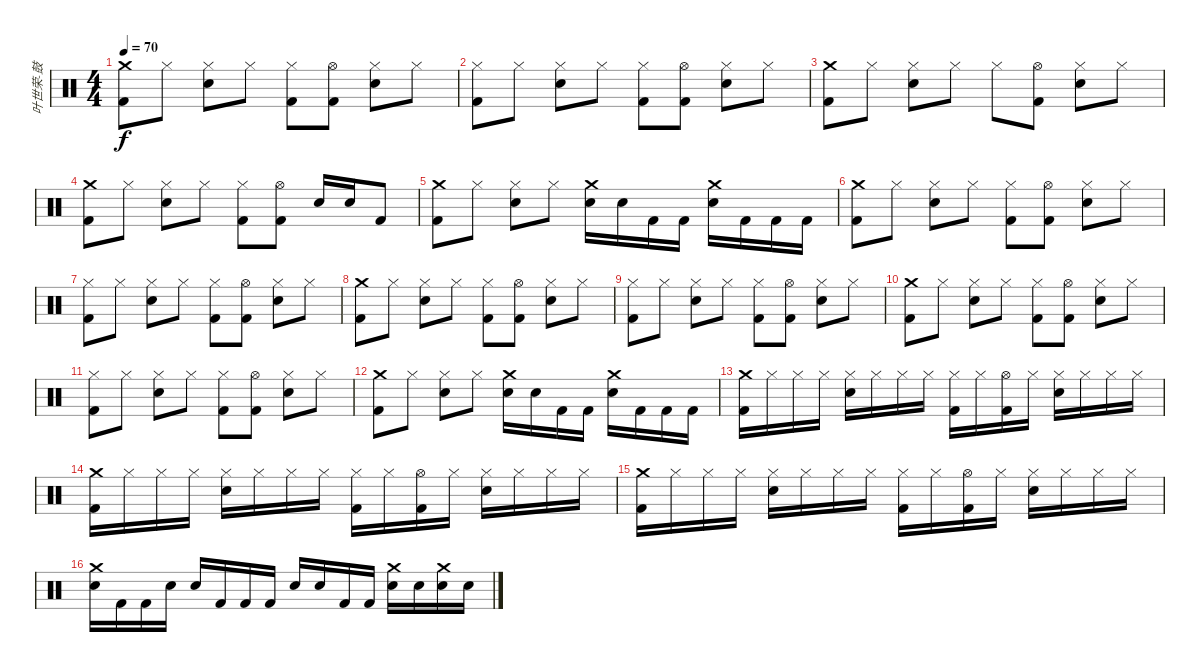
\track ("叶世荣-鼓" "叶世荣-鼓") {instrument percussion}
\staff {score}
\articulation defaults
\ts (4 4)
\tempo 70
\clef neutral
\ks c
("Crash medium (hit)" "Kick (hit) 2").8{dy f} "Hi-Hat (closed)".8 ("Hi-Hat (closed)" "Snare (hit) 2").8 "Hi-Hat (closed)".8 ("Hi-Hat (closed)" "Kick (hit) 2").8 ("Hi-Hat (open)" "Kick (hit) 2").8 ("Hi-Hat (closed)" "Snare (hit) 2").8 "Hi-Hat (closed)".8 |
("Hi-Hat (closed)" "Kick (hit) 2").8 "Hi-Hat (closed)".8 ("Hi-Hat (closed)" "Snare (hit) 2").8 "Hi-Hat (closed)".8 ("Hi-Hat (closed)" "Kick (hit) 2").8 ("Hi-Hat (open)" "Kick (hit) 2").8 ("Hi-Hat (closed)" "Snare (hit) 2").8 "Hi-Hat (closed)".8 |
("Crash medium (hit)" "Kick (hit) 2").8 "Hi-Hat (closed)".8 ("Hi-Hat (closed)" "Snare (hit) 2").8 "Hi-Hat (closed)".8 "Hi-Hat (closed)".8 ("Hi-Hat (open)" "Kick (hit) 2").8 ("Hi-Hat (closed)" "Snare (hit) 2").8 "Hi-Hat (closed)".8 |
("Crash medium (hit)" "Kick (hit) 2").8 "Hi-Hat (closed)".8 ("Hi-Hat (closed)" "Snare (hit) 2").8 "Hi-Hat (closed)".8 ("Hi-Hat (closed)" "Kick (hit) 2").8 ("Hi-Hat (open)" "Kick (hit) 2").8 "Snare (hit) 2".16 "Snare (hit) 2".16 "Kick (hit) 2".8 |
("Crash medium (hit)" "Kick (hit) 2").8 "Hi-Hat (closed)".8 ("Hi-Hat (closed)" "Snare (hit) 2").8 "Hi-Hat (closed)".8 ("Crash medium (hit)" "Snare (hit) 2").16 "Snare (hit) 2".16 "Kick (hit) 2".16 "Kick (hit) 2".16 ("Crash medium (hit)" "Snare (hit) 2").16 "Kick (hit) 2".16 "Kick (hit) 2".16 "Kick (hit) 2".16 |
("Crash medium (hit)" "Kick (hit) 2").8 "Hi-Hat (closed)".8 ("Hi-Hat (closed)" "Snare (hit) 2").8 "Hi-Hat (closed)".8 ("Hi-Hat (closed)" "Kick (hit) 2").8 ("Hi-Hat (open)" "Kick (hit) 2").8 ("Hi-Hat (closed)" "Snare (hit) 2").8 "Hi-Hat (closed)".8 |
("Hi-Hat (closed)" "Kick (hit) 2").8 "Hi-Hat (closed)".8 ("Hi-Hat (closed)" "Snare (hit) 2").8 "Hi-Hat (closed)".8 ("Hi-Hat (closed)" "Kick (hit) 2").8 ("Hi-Hat (open)" "Kick (hit) 2").8 ("Hi-Hat (closed)" "Snare (hit) 2").8 "Hi-Hat (closed)".8 |
("Crash medium (hit)" "Kick (hit) 2").8 "Hi-Hat (closed)".8 ("Hi-Hat (closed)" "Snare (hit) 2").8 "Hi-Hat (closed)".8 ("Hi-Hat (closed)" "Kick (hit) 2").8 ("Hi-Hat (open)" "Kick (hit) 2").8 ("Hi-Hat (closed)" "Snare (hit) 2").8 "Hi-Hat (closed)".8 |
("Hi-Hat (closed)" "Kick (hit) 2").8 "Hi-Hat (closed)".8 ("Hi-Hat (closed)" "Snare (hit) 2").8 "Hi-Hat (closed)".8 ("Hi-Hat (closed)" "Kick (hit) 2").8 ("Hi-Hat (open)" "Kick (hit) 2").8 ("Hi-Hat (closed)" "Snare (hit) 2").8 "Hi-Hat (closed)".8 |
("Crash medium (hit)" "Kick (hit) 2").8 "Hi-Hat (closed)".8 ("Hi-Hat (closed)" "Snare (hit) 2").8 "Hi-Hat (closed)".8 ("Hi-Hat (closed)" "Kick (hit) 2").8 ("Hi-Hat (open)" "Kick (hit) 2").8 ("Hi-Hat (closed)" "Snare (hit) 2").8 "Hi-Hat (closed)".8 |
("Hi-Hat (closed)" "Kick (hit) 2").8 "Hi-Hat (closed)".8 ("Hi-Hat (closed)" "Snare (hit) 2").8 "Hi-Hat (closed)".8 ("Hi-Hat (closed)" "Kick (hit) 2").8 ("Hi-Hat (open)" "Kick (hit) 2").8 ("Hi-Hat (closed)" "Snare (hit) 2").8 "Hi-Hat (closed)".8 |
("Crash medium (hit)" "Kick (hit) 2").8 "Hi-Hat (closed)".8 ("Hi-Hat (closed)" "Snare (hit) 2").8 "Hi-Hat (closed)".8 ("Crash medium (hit)" "Snare (hit) 2").16 "Snare (hit) 2".16 "Kick (hit) 2".16 "Kick (hit) 2".16 ("Crash medium (hit)" "Snare (hit) 2").16 "Kick (hit) 2".16 "Kick (hit) 2".16 "Kick (hit) 2".16 |
("Crash medium (hit)" "Kick (hit) 2").16 "Hi-Hat (closed)".16 "Hi-Hat (closed)".16 "Hi-Hat (closed)".16 ("Hi-Hat (closed)" "Snare (hit) 2").16 "Hi-Hat (closed)".16 "Hi-Hat (closed)".16 "Hi-Hat (closed)".16 ("Hi-Hat (closed)" "Kick (hit) 2").16 "Hi-Hat (closed)".16 ("Hi-Hat (open)" "Kick (hit) 2").16 "Hi-Hat (closed)".16 ("Hi-Hat (closed)" "Snare (hit) 2").16 "Hi-Hat (closed)".16 "Hi-Hat (closed)".16 "Hi-Hat (closed)".16 |
("Crash medium (hit)" "Kick (hit) 2").16 "Hi-Hat (closed)".16 "Hi-Hat (closed)".16 "Hi-Hat (closed)".16 ("Hi-Hat (closed)" "Snare (hit) 2").16 "Hi-Hat (closed)".16 "Hi-Hat (closed)".16 "Hi-Hat (closed)".16 ("Hi-Hat (closed)" "Kick (hit) 2").16 "Hi-Hat (closed)".16 ("Hi-Hat (open)" "Kick (hit) 2").16 "Hi-Hat (closed)".16 ("Hi-Hat (closed)" "Snare (hit) 2").16 "Hi-Hat (closed)".16 "Hi-Hat (closed)".16 "Hi-Hat (closed)".16 |
("Crash medium (hit)" "Kick (hit) 2").16 "Hi-Hat (closed)".16 "Hi-Hat (closed)".16 "Hi-Hat (closed)".16 ("Hi-Hat (closed)" "Snare (hit) 2").16 "Hi-Hat (closed)".16 "Hi-Hat (closed)".16 "Hi-Hat (closed)".16 ("Hi-Hat (closed)" "Kick (hit) 2").16 "Hi-Hat (closed)".16 ("Hi-Hat (open)" "Kick (hit) 2").16 "Hi-Hat (closed)".16 ("Hi-Hat (closed)" "Snare (hit) 2").16 "Hi-Hat (closed)".16 "Hi-Hat (closed)".16 "Hi-Hat (closed)".16 |
("Crash medium (hit)" "Snare (hit) 2").16 "Kick (hit) 2".16 "Kick (hit) 2".16 "Snare (hit) 2".16 "Snare (hit) 2".16 "Kick (hit) 2".16 "Kick (hit) 2".16 "Kick (hit) 2".16 "Snare (hit) 2".16 "Snare (hit) 2".16 "Kick (hit) 2".16 "Kick (hit) 2".16 ("Crash medium (hit)" "Snare (hit) 2").16 "Snare (hit) 2".16 ("Crash medium (hit)" "Snare (hit) 2").16 "Snare (hit) 2".16
